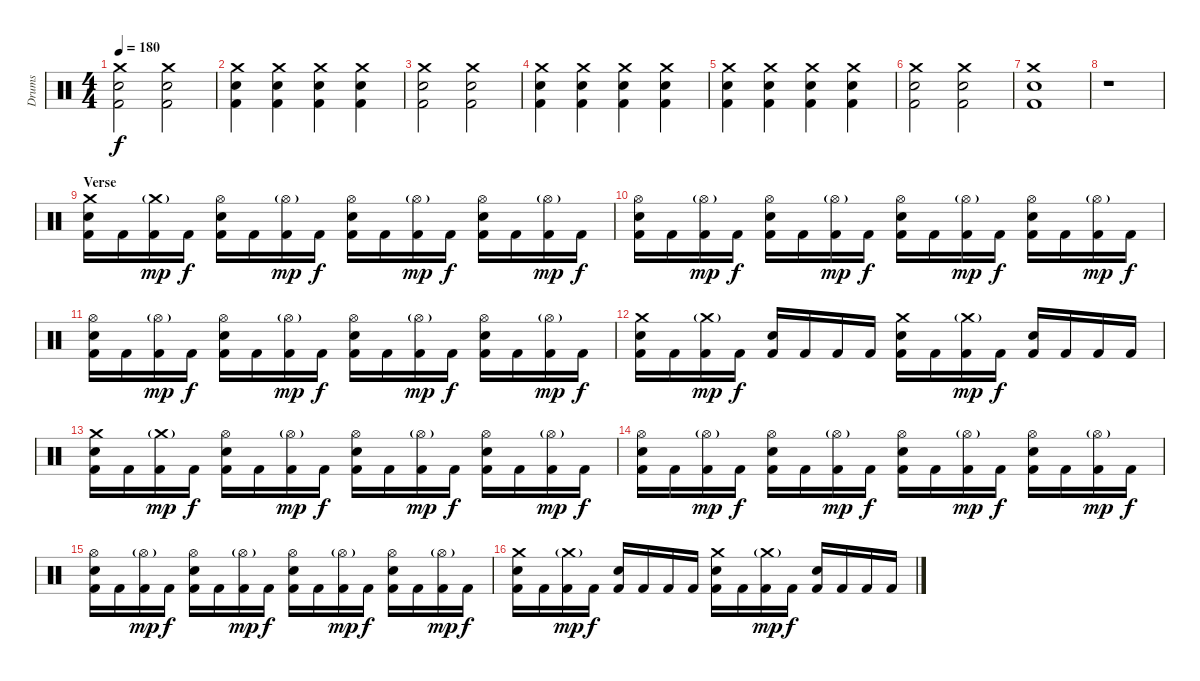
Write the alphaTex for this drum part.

\track ("Drums" "Drums") {instrument percussion}
\staff {score}
\articulation defaults
\ts (4 4)
\section ("" "")
\tempo 180
\clef neutral
\ks c
("Crash medium (hit)" "Electric Snare (hit)" "Kick (hit) 2").2{dy f} ("Crash medium (hit)" "Electric Snare (hit)" "Kick (hit) 2").2 |
("Crash medium (hit)" "Electric Snare (hit)" "Kick (hit) 2").4 ("Crash medium (hit)" "Electric Snare (hit)" "Kick (hit) 2").4 ("Crash medium (hit)" "Electric Snare (hit)" "Kick (hit) 2").4 ("Crash medium (hit)" "Electric Snare (hit)" "Kick (hit) 2").4 |
("Crash medium (hit)" "Electric Snare (hit)" "Kick (hit) 2").2 ("Crash medium (hit)" "Electric Snare (hit)" "Kick (hit) 2").2 |
("Crash medium (hit)" "Electric Snare (hit)" "Kick (hit) 2").4 ("Crash medium (hit)" "Electric Snare (hit)" "Kick (hit) 2").4 ("Crash medium (hit)" "Electric Snare (hit)" "Kick (hit) 2").4 ("Crash medium (hit)" "Electric Snare (hit)" "Kick (hit) 2").4 |
("Crash medium (hit)" "Electric Snare (hit)" "Kick (hit) 2").4 ("Crash medium (hit)" "Electric Snare (hit)" "Kick (hit) 2").4 ("Crash medium (hit)" "Electric Snare (hit)" "Kick (hit) 2").4 ("Crash medium (hit)" "Electric Snare (hit)" "Kick (hit) 2").4 |
("Crash medium (hit)" "Electric Snare (hit)" "Kick (hit) 2").2 ("Crash medium (hit)" "Electric Snare (hit)" "Kick (hit) 2").2 |
("Crash medium (hit)" "Electric Snare (hit)" "Kick (hit) 2").1 |
r.1 |
\section ("" "Verse")
("Crash medium (hit)" "Electric Snare (hit)" "Kick (hit) 2").16 "Kick (hit) 2".16 ("Crash medium (hit)"{g} "Kick (hit) 2").16{dy mp} "Kick (hit) 2".16{dy f} ("Hi-Hat (open)" "Electric Snare (hit)" "Kick (hit) 2").16 "Kick (hit) 2".16 ("Hi-Hat (open)"{g} "Kick (hit) 2").16{dy mp} "Kick (hit) 2".16{dy f} ("Hi-Hat (open)" "Electric Snare (hit)" "Kick (hit) 2").16 "Kick (hit) 2".16 ("Hi-Hat (open)"{g} "Kick (hit) 2").16{dy mp} "Kick (hit) 2".16{dy f} ("Hi-Hat (open)" "Electric Snare (hit)" "Kick (hit) 2").16 "Kick (hit) 2".16 ("Hi-Hat (open)"{g} "Kick (hit) 2").16{dy mp} "Kick (hit) 2".16{dy f} |
("Hi-Hat (open)" "Electric Snare (hit)" "Kick (hit) 2").16 "Kick (hit) 2".16 ("Hi-Hat (open)"{g} "Kick (hit) 2").16{dy mp} "Kick (hit) 2".16{dy f} ("Hi-Hat (open)" "Electric Snare (hit)" "Kick (hit) 2").16 "Kick (hit) 2".16 ("Hi-Hat (open)"{g} "Kick (hit) 2").16{dy mp} "Kick (hit) 2".16{dy f} ("Hi-Hat (open)" "Electric Snare (hit)" "Kick (hit) 2").16 "Kick (hit) 2".16 ("Hi-Hat (open)"{g} "Kick (hit) 2").16{dy mp} "Kick (hit) 2".16{dy f} ("Hi-Hat (open)" "Electric Snare (hit)" "Kick (hit) 2").16 "Kick (hit) 2".16 ("Hi-Hat (open)"{g} "Kick (hit) 2").16{dy mp} "Kick (hit) 2".16{dy f} |
("Hi-Hat (open)" "Electric Snare (hit)" "Kick (hit) 2").16 "Kick (hit) 2".16 ("Hi-Hat (open)"{g} "Kick (hit) 2").16{dy mp} "Kick (hit) 2".16{dy f} ("Hi-Hat (open)" "Electric Snare (hit)" "Kick (hit) 2").16 "Kick (hit) 2".16 ("Hi-Hat (open)"{g} "Kick (hit) 2").16{dy mp} "Kick (hit) 2".16{dy f} ("Hi-Hat (open)" "Electric Snare (hit)" "Kick (hit) 2").16 "Kick (hit) 2".16 ("Hi-Hat (open)"{g} "Kick (hit) 2").16{dy mp} "Kick (hit) 2".16{dy f} ("Hi-Hat (open)" "Electric Snare (hit)" "Kick (hit) 2").16 "Kick (hit) 2".16 ("Hi-Hat (open)"{g} "Kick (hit) 2").16{dy mp} "Kick (hit) 2".16{dy f} |
("Crash medium (hit)" "Electric Snare (hit)" "Kick (hit) 2").16 "Kick (hit) 2".16 ("Crash medium (hit)"{g} "Kick (hit) 2").16{dy mp} "Kick (hit) 2".16{dy f} ("Electric Snare (hit)" "Kick (hit) 2").16 "Kick (hit) 2".16 "Kick (hit) 2".16 "Kick (hit) 2".16 ("Crash medium (hit)" "Electric Snare (hit)" "Kick (hit) 2").16 "Kick (hit) 2".16 ("Crash medium (hit)"{g} "Kick (hit) 2").16{dy mp} "Kick (hit) 2".16{dy f} ("Electric Snare (hit)" "Kick (hit) 2").16 "Kick (hit) 2".16 "Kick (hit) 2".16 "Kick (hit) 2".16 |
("Crash medium (hit)" "Electric Snare (hit)" "Kick (hit) 2").16 "Kick (hit) 2".16 ("Crash medium (hit)"{g} "Kick (hit) 2").16{dy mp} "Kick (hit) 2".16{dy f} ("Hi-Hat (open)" "Electric Snare (hit)" "Kick (hit) 2").16 "Kick (hit) 2".16 ("Hi-Hat (open)"{g} "Kick (hit) 2").16{dy mp} "Kick (hit) 2".16{dy f} ("Hi-Hat (open)" "Electric Snare (hit)" "Kick (hit) 2").16 "Kick (hit) 2".16 ("Hi-Hat (open)"{g} "Kick (hit) 2").16{dy mp} "Kick (hit) 2".16{dy f} ("Hi-Hat (open)" "Electric Snare (hit)" "Kick (hit) 2").16 "Kick (hit) 2".16 ("Hi-Hat (open)"{g} "Kick (hit) 2").16{dy mp} "Kick (hit) 2".16{dy f} |
("Hi-Hat (open)" "Electric Snare (hit)" "Kick (hit) 2").16 "Kick (hit) 2".16 ("Hi-Hat (open)"{g} "Kick (hit) 2").16{dy mp} "Kick (hit) 2".16{dy f} ("Hi-Hat (open)" "Electric Snare (hit)" "Kick (hit) 2").16 "Kick (hit) 2".16 ("Hi-Hat (open)"{g} "Kick (hit) 2").16{dy mp} "Kick (hit) 2".16{dy f} ("Hi-Hat (open)" "Electric Snare (hit)" "Kick (hit) 2").16 "Kick (hit) 2".16 ("Hi-Hat (open)"{g} "Kick (hit) 2").16{dy mp} "Kick (hit) 2".16{dy f} ("Hi-Hat (open)" "Electric Snare (hit)" "Kick (hit) 2").16 "Kick (hit) 2".16 ("Hi-Hat (open)"{g} "Kick (hit) 2").16{dy mp} "Kick (hit) 2".16{dy f} |
("Hi-Hat (open)" "Electric Snare (hit)" "Kick (hit) 2").16 "Kick (hit) 2".16 ("Hi-Hat (open)"{g} "Kick (hit) 2").16{dy mp} "Kick (hit) 2".16{dy f} ("Hi-Hat (open)" "Electric Snare (hit)" "Kick (hit) 2").16 "Kick (hit) 2".16 ("Hi-Hat (open)"{g} "Kick (hit) 2").16{dy mp} "Kick (hit) 2".16{dy f} ("Hi-Hat (open)" "Electric Snare (hit)" "Kick (hit) 2").16 "Kick (hit) 2".16 ("Hi-Hat (open)"{g} "Kick (hit) 2").16{dy mp} "Kick (hit) 2".16{dy f} ("Hi-Hat (open)" "Electric Snare (hit)" "Kick (hit) 2").16 "Kick (hit) 2".16 ("Hi-Hat (open)"{g} "Kick (hit) 2").16{dy mp} "Kick (hit) 2".16{dy f} |
("Crash medium (hit)" "Electric Snare (hit)" "Kick (hit) 2").16 "Kick (hit) 2".16 ("Crash medium (hit)"{g} "Kick (hit) 2").16{dy mp} "Kick (hit) 2".16{dy f} ("Electric Snare (hit)" "Kick (hit) 2").16 "Kick (hit) 2".16 "Kick (hit) 2".16 "Kick (hit) 2".16 ("Crash medium (hit)" "Electric Snare (hit)" "Kick (hit) 2").16 "Kick (hit) 2".16 ("Crash medium (hit)"{g} "Kick (hit) 2").16{dy mp} "Kick (hit) 2".16{dy f} ("Electric Snare (hit)" "Kick (hit) 2").16 "Kick (hit) 2".16 "Kick (hit) 2".16 "Kick (hit) 2".16
